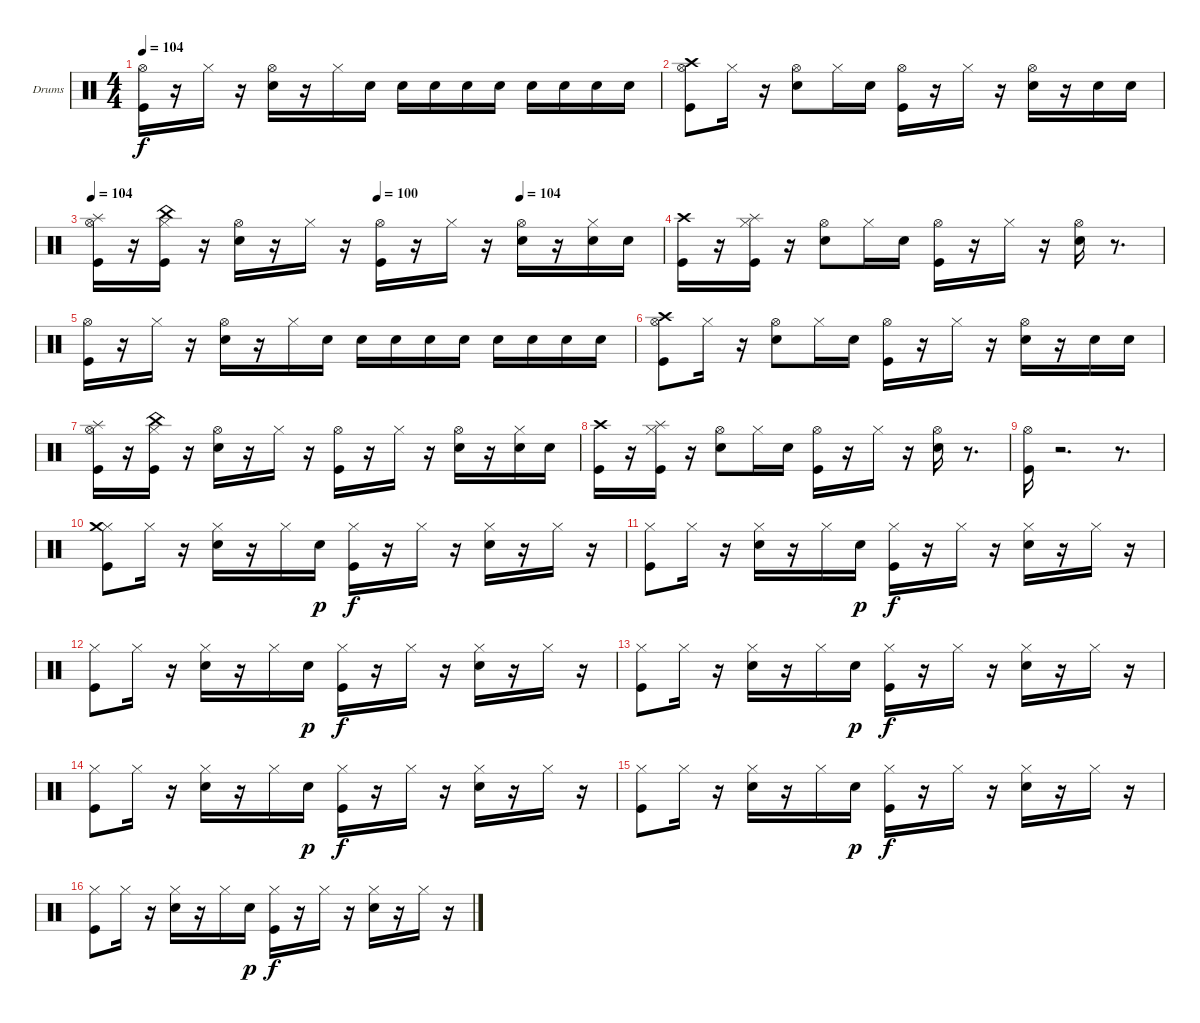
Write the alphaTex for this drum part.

\bracketExtendMode groupsimilarinstruments
\firstSystemTrackNameOrientation horizontal
\otherSystemsTrackNameOrientation horizontal
\track ("Нюта" "Drums") {instrument percussion}
\staff {score}
\articulation defaults
\ts (4 4)
\tempo 104
\clef neutral
\ks c
("Hi-Hat (open)" "Kick (hit)").16{dy f} r.16 "Hi-Hat (closed)".16 r.16 ("Snare (hit) 2" "Hi-Hat (open)").16 r.16 "Hi-Hat (closed)".16 "Snare (hit) 2".16 "Snare (hit) 2".16 "Snare (hit) 2".16 "Snare (hit) 2".16 "Snare (hit) 2".16 "Snare (hit) 2".16 "Snare (hit) 2".16 "Snare (hit) 2".16 "Snare (hit) 2".16 |
("Hi-Hat (open)" "Crash high (hit)" "Kick (hit)").8 "Hi-Hat (closed)".16 r.16 ("Hi-Hat (open)" "Snare (hit) 2").8 "Hi-Hat (closed)".16 "Snare (hit) 2".16 ("Hi-Hat (open)" "Kick (hit)").16 r.16 "Hi-Hat (closed)".16 r.16 ("Hi-Hat (open)" "Snare (hit) 2").16 r.16 "Snare (hit) 2".16 "Snare (hit) 2".16 |
\tempo 104
\tempo (100 0.5)
\tempo (104 0.75)
("Splash (hit)" "Hi-Hat (open)" "Kick (hit)").16 r.16 ("Kick (hit)" "China (hit)" "Hi-Hat (closed)").16 r.16 ("Snare (hit) 2" "Hi-Hat (open)").16 r.16 "Hi-Hat (closed)".16 r.16 ("Kick (hit)" "Hi-Hat (open)").16 r.16 "Hi-Hat (closed)".16 r.16 ("Snare (hit) 2" "Hi-Hat (open)").16 r.16 ("Snare (hit) 2" "Hi-Hat (closed)").16 "Snare (hit) 2".16 |
("Kick (hit)" "Crash high (hit)").16 r.16 ("Kick (hit)" "Splash (hit)" "Hi-Hat (closed)").16 r.16 ("Hi-Hat (open)" "Snare (hit) 2").8 "Hi-Hat (closed)".16 "Snare (hit) 2".16 ("Hi-Hat (open)" "Kick (hit)").16 r.16 "Hi-Hat (closed)".16 r.16 ("Hi-Hat (open)" "Snare (hit) 2").16 r.8{d} |
("Hi-Hat (open)" "Kick (hit)").16 r.16 "Hi-Hat (closed)".16 r.16 ("Snare (hit) 2" "Hi-Hat (open)").16 r.16 "Hi-Hat (closed)".16 "Snare (hit) 2".16 "Snare (hit) 2".16 "Snare (hit) 2".16 "Snare (hit) 2".16 "Snare (hit) 2".16 "Snare (hit) 2".16 "Snare (hit) 2".16 "Snare (hit) 2".16 "Snare (hit) 2".16 |
("Hi-Hat (open)" "Crash high (hit)" "Kick (hit)").8 "Hi-Hat (closed)".16 r.16 ("Hi-Hat (open)" "Snare (hit) 2").8 "Hi-Hat (closed)".16 "Snare (hit) 2".16 ("Hi-Hat (open)" "Kick (hit)").16 r.16 "Hi-Hat (closed)".16 r.16 ("Hi-Hat (open)" "Snare (hit) 2").16 r.16 "Snare (hit) 2".16 "Snare (hit) 2".16 |
("Splash (hit)" "Hi-Hat (open)" "Kick (hit)").16 r.16 ("Kick (hit)" "China (hit)" "Hi-Hat (closed)").16 r.16 ("Snare (hit) 2" "Hi-Hat (open)").16 r.16 "Hi-Hat (closed)".16 r.16 ("Kick (hit)" "Hi-Hat (open)").16 r.16 "Hi-Hat (closed)".16 r.16 ("Snare (hit) 2" "Hi-Hat (open)").16 r.16 ("Snare (hit) 2" "Hi-Hat (closed)").16 "Snare (hit) 2".16 |
("Kick (hit)" "Crash high (hit)").16 r.16 ("Kick (hit)" "Splash (hit)" "Hi-Hat (closed)").16 r.16 ("Hi-Hat (open)" "Snare (hit) 2").8 "Hi-Hat (closed)".16 "Snare (hit) 2".16 ("Hi-Hat (open)" "Kick (hit)").16 r.16 "Hi-Hat (closed)".16 r.16 ("Hi-Hat (open)" "Snare (hit) 2").16 r.8{d} |
("Hi-Hat (open)" "Kick (hit)").16 r.2{d} r.8{d} |
("Hi-Hat (closed)" "Crash medium (hit)" "Kick (hit)").8 "Hi-Hat (closed)".16 r.16 ("Hi-Hat (closed)" "Snare (hit) 2").16 r.16 "Hi-Hat (closed)".16 "Snare (hit) 2".16{dy p} ("Hi-Hat (closed)" "Kick (hit)").16{dy f} r.16 "Hi-Hat (closed)".16 r.16 ("Hi-Hat (closed)" "Snare (hit) 2").16 r.16 "Hi-Hat (closed)".16 r.16 |
("Hi-Hat (closed)" "Kick (hit)").8 "Hi-Hat (closed)".16 r.16 ("Hi-Hat (closed)" "Snare (hit) 2").16 r.16 "Hi-Hat (closed)".16 "Snare (hit) 2".16{dy p} ("Hi-Hat (closed)" "Kick (hit)").16{dy f} r.16 "Hi-Hat (closed)".16 r.16 ("Hi-Hat (closed)" "Snare (hit) 2").16 r.16 "Hi-Hat (closed)".16 r.16 |
("Hi-Hat (closed)" "Kick (hit)").8 "Hi-Hat (closed)".16 r.16 ("Hi-Hat (closed)" "Snare (hit) 2").16 r.16 "Hi-Hat (closed)".16 "Snare (hit) 2".16{dy p} ("Hi-Hat (closed)" "Kick (hit)").16{dy f} r.16 "Hi-Hat (closed)".16 r.16 ("Hi-Hat (closed)" "Snare (hit) 2").16 r.16 "Hi-Hat (closed)".16 r.16 |
("Hi-Hat (closed)" "Kick (hit)").8 "Hi-Hat (closed)".16 r.16 ("Hi-Hat (closed)" "Snare (hit) 2").16 r.16 "Hi-Hat (closed)".16 "Snare (hit) 2".16{dy p} ("Hi-Hat (closed)" "Kick (hit)").16{dy f} r.16 "Hi-Hat (closed)".16 r.16 ("Hi-Hat (closed)" "Snare (hit) 2").16 r.16 "Hi-Hat (closed)".16 r.16 |
("Hi-Hat (closed)" "Kick (hit)").8 "Hi-Hat (closed)".16 r.16 ("Hi-Hat (closed)" "Snare (hit) 2").16 r.16 "Hi-Hat (closed)".16 "Snare (hit) 2".16{dy p} ("Hi-Hat (closed)" "Kick (hit)").16{dy f} r.16 "Hi-Hat (closed)".16 r.16 ("Hi-Hat (closed)" "Snare (hit) 2").16 r.16 "Hi-Hat (closed)".16 r.16 |
("Hi-Hat (closed)" "Kick (hit)").8 "Hi-Hat (closed)".16 r.16 ("Hi-Hat (closed)" "Snare (hit) 2").16 r.16 "Hi-Hat (closed)".16 "Snare (hit) 2".16{dy p} ("Hi-Hat (closed)" "Kick (hit)").16{dy f} r.16 "Hi-Hat (closed)".16 r.16 ("Hi-Hat (closed)" "Snare (hit) 2").16 r.16 "Hi-Hat (closed)".16 r.16 |
("Hi-Hat (closed)" "Kick (hit)").8 "Hi-Hat (closed)".16 r.16 ("Hi-Hat (closed)" "Snare (hit) 2").16 r.16 "Hi-Hat (closed)".16 "Snare (hit) 2".16{dy p} ("Hi-Hat (closed)" "Kick (hit)").16{dy f} r.16 "Hi-Hat (closed)".16 r.16 ("Hi-Hat (closed)" "Snare (hit) 2").16 r.16 "Hi-Hat (closed)".16 r.16
